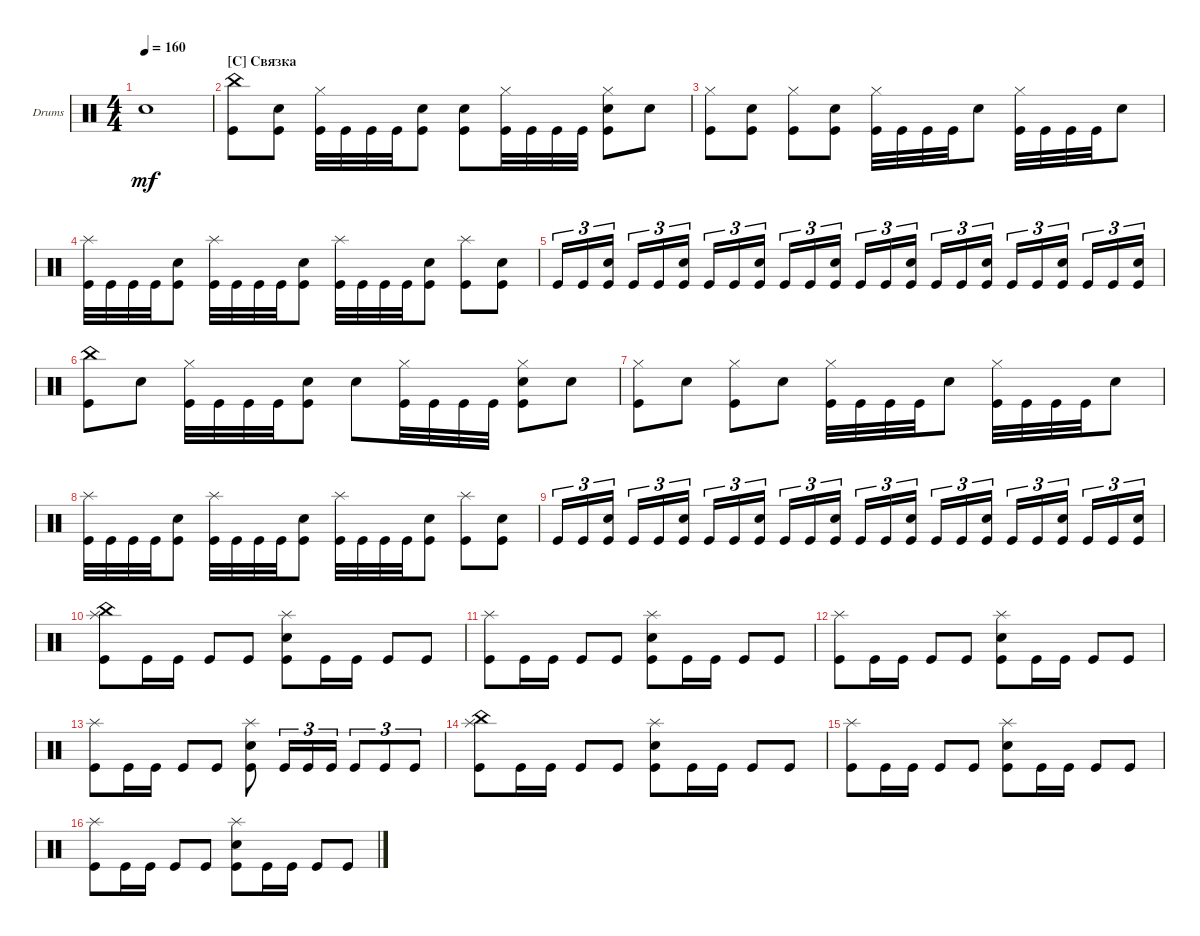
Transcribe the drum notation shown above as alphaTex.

\defaultSystemsLayout 4
\bracketExtendMode groupsimilarinstruments
\firstSystemTrackNameOrientation horizontal
\otherSystemsTrackNameOrientation horizontal
\track ("Drumkit" "Drums") {instrument percussion}
\staff {score}
\articulation defaults
\ts (4 4)
\tempo 160
\clef neutral
\scale
0.333333
\ks c "Snare (hit) 2"{t}.1{dy mf}
|
\section ("C" "Связка")
("Kick (hit)" "China (hit)").8 ("Snare (hit) 2" "Kick (hit)").8 ("Kick (hit)" "Hi-Hat (closed)").32 "Kick (hit)".32 "Kick (hit)".32 "Kick (hit)".32 ("Kick (hit)" "Snare (hit) 2").8 ("Snare (hit) 2" "Kick (hit)").8 ("Kick (hit)" "Hi-Hat (closed)").32 "Kick (hit)".32 "Kick (hit)".32 "Kick (hit)".32 ("Kick (hit)" "Hi-Hat (closed)" "Snare (hit) 2").8 "Snare (hit) 2".8 |
("Kick (hit)" "Hi-Hat (closed)").8 ("Snare (hit) 2" "Kick (hit)").8 ("Kick (hit)" "Hi-Hat (closed)").8 ("Snare (hit) 2" "Kick (hit)").8 ("Kick (hit)" "Hi-Hat (closed)").32 "Kick (hit)".32 "Kick (hit)".32 "Kick (hit)".32 "Snare (hit) 2".8 ("Kick (hit)" "Hi-Hat (closed)").32 "Kick (hit)".32 "Kick (hit)".32 "Kick (hit)".32 "Snare (hit) 2".8 |
("Kick (hit)" "Splash (hit)").32 "Kick (hit)".32 "Kick (hit)".32 "Kick (hit)".32 ("Kick (hit)" "Snare (hit) 2").8 ("Kick (hit)" "Splash (hit)").32 "Kick (hit)".32 "Kick (hit)".32 "Kick (hit)".32 ("Kick (hit)" "Snare (hit) 2").8 ("Kick (hit)" "Splash (hit)").32 "Kick (hit)".32 "Kick (hit)".32 "Kick (hit)".32 ("Kick (hit)" "Snare (hit) 2").8 ("Kick (hit)" "Splash (hit)").8 ("Kick (hit)" "Snare (hit) 2").8 |
"Kick (hit)".16{tu (3 2)} "Kick (hit)".16{tu (3 2)} ("Kick (hit)" "Snare (hit) 2").16{tu (3 2)} "Kick (hit)".16{tu (3 2)} "Kick (hit)".16{tu (3 2)} ("Kick (hit)" "Snare (hit) 2").16{tu (3 2)} "Kick (hit)".16{tu (3 2)} "Kick (hit)".16{tu (3 2)} ("Kick (hit)" "Snare (hit) 2").16{tu (3 2)} "Kick (hit)".16{tu (3 2)} "Kick (hit)".16{tu (3 2)} ("Kick (hit)" "Snare (hit) 2").16{tu (3 2)} "Kick (hit)".16{tu (3 2)} "Kick (hit)".16{tu (3 2)} ("Kick (hit)" "Snare (hit) 2").16{tu (3 2)} "Kick (hit)".16{tu (3 2)} "Kick (hit)".16{tu (3 2)} ("Kick (hit)" "Snare (hit) 2").16{tu (3 2)} "Kick (hit)".16{tu (3 2)} "Kick (hit)".16{tu (3 2)} ("Kick (hit)" "Snare (hit) 2").16{tu (3 2)} "Kick (hit)".16{tu (3 2)} "Kick (hit)".16{tu (3 2)} ("Kick (hit)" "Snare (hit) 2").16{tu (3 2)} |
("Kick (hit)" "China (hit)").8 "Snare (hit) 2".8 ("Kick (hit)" "Hi-Hat (closed)").32 "Kick (hit)".32 "Kick (hit)".32 "Kick (hit)".32 ("Kick (hit)" "Snare (hit) 2").8 "Snare (hit) 2".8 ("Kick (hit)" "Hi-Hat (closed)").32 "Kick (hit)".32 "Kick (hit)".32 "Kick (hit)".32 ("Kick (hit)" "Hi-Hat (closed)" "Snare (hit) 2").8 "Snare (hit) 2".8 |
("Kick (hit)" "Hi-Hat (closed)").8 "Snare (hit) 2".8 ("Kick (hit)" "Hi-Hat (closed)").8 "Snare (hit) 2".8 ("Kick (hit)" "Hi-Hat (closed)").32 "Kick (hit)".32 "Kick (hit)".32 "Kick (hit)".32 "Snare (hit) 2".8 ("Kick (hit)" "Hi-Hat (closed)").32 "Kick (hit)".32 "Kick (hit)".32 "Kick (hit)".32 "Snare (hit) 2".8 |
("Kick (hit)" "Splash (hit)").32 "Kick (hit)".32 "Kick (hit)".32 "Kick (hit)".32 ("Kick (hit)" "Snare (hit) 2").8 ("Kick (hit)" "Splash (hit)").32 "Kick (hit)".32 "Kick (hit)".32 "Kick (hit)".32 ("Kick (hit)" "Snare (hit) 2").8 ("Kick (hit)" "Splash (hit)").32 "Kick (hit)".32 "Kick (hit)".32 "Kick (hit)".32 ("Kick (hit)" "Snare (hit) 2").8 ("Kick (hit)" "Splash (hit)").8 ("Kick (hit)" "Snare (hit) 2").8 |
"Kick (hit)".16{tu (3 2)} "Kick (hit)".16{tu (3 2)} ("Kick (hit)" "Snare (hit) 2").16{tu (3 2)} "Kick (hit)".16{tu (3 2)} "Kick (hit)".16{tu (3 2)} ("Kick (hit)" "Snare (hit) 2").16{tu (3 2)} "Kick (hit)".16{tu (3 2)} "Kick (hit)".16{tu (3 2)} ("Kick (hit)" "Snare (hit) 2").16{tu (3 2)} "Kick (hit)".16{tu (3 2)} "Kick (hit)".16{tu (3 2)} ("Kick (hit)" "Snare (hit) 2").16{tu (3 2)} "Kick (hit)".16{tu (3 2)} "Kick (hit)".16{tu (3 2)} ("Kick (hit)" "Snare (hit) 2").16{tu (3 2)} "Kick (hit)".16{tu (3 2)} "Kick (hit)".16{tu (3 2)} ("Kick (hit)" "Snare (hit) 2").16{tu (3 2)} "Kick (hit)".16{tu (3 2)} "Kick (hit)".16{tu (3 2)} ("Kick (hit)" "Snare (hit) 2").16{tu (3 2)} "Kick (hit)".16{tu (3 2)} "Kick (hit)".16{tu (3 2)} ("Kick (hit)" "Snare (hit) 2").16{tu (3 2)} |
("Kick (hit)" "China (hit)" "Splash (hit)").8 "Kick (hit)".16 "Kick (hit)".16 "Kick (hit)".8 "Kick (hit)".8 ("Kick (hit)" "Snare (hit) 2" "Splash (hit)").8 "Kick (hit)".16 "Kick (hit)".16 "Kick (hit)".8 "Kick (hit)".8 |
("Kick (hit)" "Splash (hit)").8 "Kick (hit)".16 "Kick (hit)".16 "Kick (hit)".8 "Kick (hit)".8 ("Kick (hit)" "Snare (hit) 2" "Splash (hit)").8 "Kick (hit)".16 "Kick (hit)".16 "Kick (hit)".8 "Kick (hit)".8 |
("Kick (hit)" "Splash (hit)").8 "Kick (hit)".16 "Kick (hit)".16 "Kick (hit)".8 "Kick (hit)".8 ("Kick (hit)" "Snare (hit) 2" "Splash (hit)").8 "Kick (hit)".16 "Kick (hit)".16 "Kick (hit)".8 "Kick (hit)".8 |
("Kick (hit)" "Splash (hit)").8 "Kick (hit)".16 "Kick (hit)".16 "Kick (hit)".8 "Kick (hit)".8 ("Kick (hit)" "Snare (hit) 2" "Splash (hit)").8 "Kick (hit)".16{tu (3 2)} "Kick (hit)".16{tu (3 2)} "Kick (hit)".16{tu (3 2)} "Kick (hit)".8{tu (3 2)} "Kick (hit)".8{tu (3 2)} "Kick (hit)".8{tu (3 2)} |
("Kick (hit)" "China (hit)" "Splash (hit)").8 "Kick (hit)".16 "Kick (hit)".16 "Kick (hit)".8 "Kick (hit)".8 ("Kick (hit)" "Snare (hit) 2" "Splash (hit)").8 "Kick (hit)".16 "Kick (hit)".16 "Kick (hit)".8 "Kick (hit)".8 |
("Kick (hit)" "Splash (hit)").8 "Kick (hit)".16 "Kick (hit)".16 "Kick (hit)".8 "Kick (hit)".8 ("Kick (hit)" "Snare (hit) 2" "Splash (hit)").8 "Kick (hit)".16 "Kick (hit)".16 "Kick (hit)".8 "Kick (hit)".8 |
("Kick (hit)" "Splash (hit)").8 "Kick (hit)".16 "Kick (hit)".16 "Kick (hit)".8 "Kick (hit)".8 ("Kick (hit)" "Snare (hit) 2" "Splash (hit)").8 "Kick (hit)".16 "Kick (hit)".16 "Kick (hit)".8 "Kick (hit)".8
